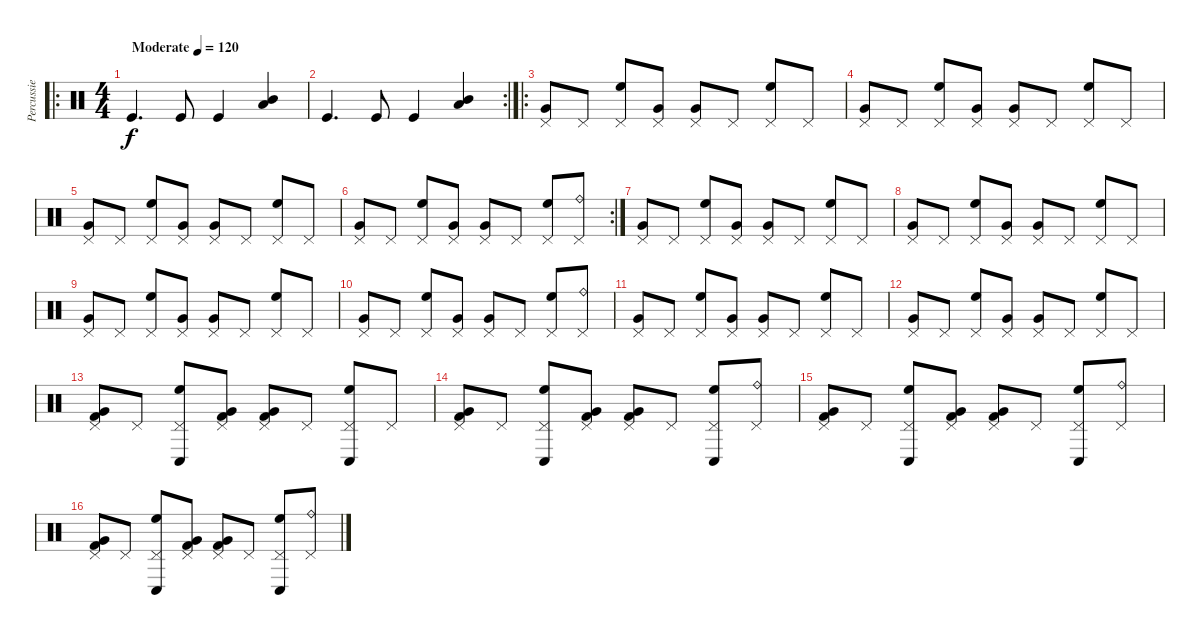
\track ("Percussie" "Percussie") {instrument percussion}
\staff {score}
\articulation defaults
\ro
\ts (4 4)
\tempo (120 "Moderate")
\clef neutral
\ks c "Kick (hit)".4{d dy f} "Kick (hit)".8 "Kick (hit)".4
("Low Floor Tom (hit)" "Mid Tom (hit)").4 |
\rc 2 "Kick (hit)".4{d} "Kick (hit)".8 "Kick (hit)".4
("Low Floor Tom (hit)" "Mid Tom (hit)").4 |
\ro
("Pedal Hi-Hat (hit)" "Very Low Tom (hit)").8 "Pedal Hi-Hat (hit)".8 ("Pedal Hi-Hat (hit)" "High Floor Tom (hit)").8 ("Pedal Hi-Hat (hit)" "Very Low Tom (hit)").8 ("Pedal Hi-Hat (hit)" "Very Low Tom (hit)").8 "Pedal Hi-Hat (hit)".8 ("Pedal Hi-Hat (hit)" "High Floor Tom (hit)").8 "Pedal Hi-Hat (hit)".8 |
("Pedal Hi-Hat (hit)" "Very Low Tom (hit)").8 "Pedal Hi-Hat (hit)".8 ("Pedal Hi-Hat (hit)" "High Floor Tom (hit)").8 ("Pedal Hi-Hat (hit)" "Very Low Tom (hit)").8 ("Pedal Hi-Hat (hit)" "Very Low Tom (hit)").8 "Pedal Hi-Hat (hit)".8 ("Pedal Hi-Hat (hit)" "High Floor Tom (hit)").8 "Pedal Hi-Hat (hit)".8 |
("Pedal Hi-Hat (hit)" "Very Low Tom (hit)").8 "Pedal Hi-Hat (hit)".8 ("Pedal Hi-Hat (hit)" "High Floor Tom (hit)").8 ("Pedal Hi-Hat (hit)" "Very Low Tom (hit)").8 ("Pedal Hi-Hat (hit)" "Very Low Tom (hit)").8 "Pedal Hi-Hat (hit)".8 ("Pedal Hi-Hat (hit)" "High Floor Tom (hit)").8 "Pedal Hi-Hat (hit)".8 |
\rc 2
("Pedal Hi-Hat (hit)" "Very Low Tom (hit)").8 "Pedal Hi-Hat (hit)".8 ("Pedal Hi-Hat (hit)" "High Floor Tom (hit)").8 ("Pedal Hi-Hat (hit)" "Very Low Tom (hit)").8 ("Pedal Hi-Hat (hit)" "Very Low Tom (hit)").8 "Pedal Hi-Hat (hit)".8 ("Pedal Hi-Hat (hit)" "High Floor Tom (hit)").8 ("Ride (bell)" "Pedal Hi-Hat (hit)").8 |
("Pedal Hi-Hat (hit)" "Very Low Tom (hit)").8 "Pedal Hi-Hat (hit)".8 ("Pedal Hi-Hat (hit)" "High Floor Tom (hit)").8 ("Pedal Hi-Hat (hit)" "Very Low Tom (hit)").8 ("Pedal Hi-Hat (hit)" "Very Low Tom (hit)").8 "Pedal Hi-Hat (hit)".8 ("Pedal Hi-Hat (hit)" "High Floor Tom (hit)").8 "Pedal Hi-Hat (hit)".8 |
("Pedal Hi-Hat (hit)" "Very Low Tom (hit)").8 "Pedal Hi-Hat (hit)".8 ("Pedal Hi-Hat (hit)" "High Floor Tom (hit)").8 ("Pedal Hi-Hat (hit)" "Very Low Tom (hit)").8 ("Pedal Hi-Hat (hit)" "Very Low Tom (hit)").8 "Pedal Hi-Hat (hit)".8 ("Pedal Hi-Hat (hit)" "High Floor Tom (hit)").8 "Pedal Hi-Hat (hit)".8 |
("Pedal Hi-Hat (hit)" "Very Low Tom (hit)").8 "Pedal Hi-Hat (hit)".8 ("Pedal Hi-Hat (hit)" "High Floor Tom (hit)").8 ("Pedal Hi-Hat (hit)" "Very Low Tom (hit)").8 ("Pedal Hi-Hat (hit)" "Very Low Tom (hit)").8 "Pedal Hi-Hat (hit)".8 ("Pedal Hi-Hat (hit)" "High Floor Tom (hit)").8 "Pedal Hi-Hat (hit)".8 |
("Pedal Hi-Hat (hit)" "Very Low Tom (hit)").8 "Pedal Hi-Hat (hit)".8 ("Pedal Hi-Hat (hit)" "High Floor Tom (hit)").8 ("Pedal Hi-Hat (hit)" "Very Low Tom (hit)").8 ("Pedal Hi-Hat (hit)" "Very Low Tom (hit)").8 "Pedal Hi-Hat (hit)".8 ("Pedal Hi-Hat (hit)" "High Floor Tom (hit)").8 ("Ride (bell)" "Pedal Hi-Hat (hit)").8 |
("Pedal Hi-Hat (hit)" "Very Low Tom (hit)").8 "Pedal Hi-Hat (hit)".8 ("Pedal Hi-Hat (hit)" "High Floor Tom (hit)").8 ("Pedal Hi-Hat (hit)" "Very Low Tom (hit)").8 ("Pedal Hi-Hat (hit)" "Very Low Tom (hit)").8 "Pedal Hi-Hat (hit)".8 ("Pedal Hi-Hat (hit)" "High Floor Tom (hit)").8 "Pedal Hi-Hat (hit)".8 |
("Pedal Hi-Hat (hit)" "Very Low Tom (hit)").8 "Pedal Hi-Hat (hit)".8 ("Pedal Hi-Hat (hit)" "High Floor Tom (hit)").8 ("Pedal Hi-Hat (hit)" "Very Low Tom (hit)").8 ("Pedal Hi-Hat (hit)" "Very Low Tom (hit)").8 "Pedal Hi-Hat (hit)".8 ("Pedal Hi-Hat (hit)" "High Floor Tom (hit)").8 "Pedal Hi-Hat (hit)".8 |
("Pedal Hi-Hat (hit)" "Very Low Tom (hit)" "Kick (hit) 2").8 "Pedal Hi-Hat (hit)".8 ("Pedal Hi-Hat (hit)" "High Floor Tom (hit)" "Conga low (hit)").8 ("Pedal Hi-Hat (hit)" "Very Low Tom (hit)" "Kick (hit) 2").8 ("Pedal Hi-Hat (hit)" "Very Low Tom (hit)" "Kick (hit) 2").8 "Pedal Hi-Hat (hit)".8 ("Pedal Hi-Hat (hit)" "High Floor Tom (hit)" "Conga low (hit)").8 "Pedal Hi-Hat (hit)".8 |
("Pedal Hi-Hat (hit)" "Very Low Tom (hit)" "Kick (hit) 2").8 "Pedal Hi-Hat (hit)".8 ("Pedal Hi-Hat (hit)" "High Floor Tom (hit)" "Conga low (hit)").8 ("Pedal Hi-Hat (hit)" "Very Low Tom (hit)" "Kick (hit) 2").8 ("Pedal Hi-Hat (hit)" "Very Low Tom (hit)" "Kick (hit) 2").8 "Pedal Hi-Hat (hit)".8 ("Pedal Hi-Hat (hit)" "High Floor Tom (hit)" "Conga low (hit)").8 ("Ride (bell)" "Pedal Hi-Hat (hit)").8 |
("Pedal Hi-Hat (hit)" "Very Low Tom (hit)" "Kick (hit) 2").8 "Pedal Hi-Hat (hit)".8 ("Pedal Hi-Hat (hit)" "High Floor Tom (hit)" "Conga low (hit)").8 ("Pedal Hi-Hat (hit)" "Very Low Tom (hit)" "Kick (hit) 2").8 ("Pedal Hi-Hat (hit)" "Very Low Tom (hit)" "Kick (hit) 2").8 "Pedal Hi-Hat (hit)".8 ("Pedal Hi-Hat (hit)" "High Floor Tom (hit)" "Conga low (hit)").8 ("Ride (bell)" "Pedal Hi-Hat (hit)").8 |
("Pedal Hi-Hat (hit)" "Very Low Tom (hit)" "Kick (hit) 2").8 "Pedal Hi-Hat (hit)".8 ("Pedal Hi-Hat (hit)" "High Floor Tom (hit)" "Conga low (hit)").8 ("Pedal Hi-Hat (hit)" "Very Low Tom (hit)" "Kick (hit) 2").8 ("Pedal Hi-Hat (hit)" "Very Low Tom (hit)" "Kick (hit) 2").8 "Pedal Hi-Hat (hit)".8 ("Pedal Hi-Hat (hit)" "High Floor Tom (hit)" "Conga low (hit)").8 ("Ride (bell)" "Pedal Hi-Hat (hit)").8
